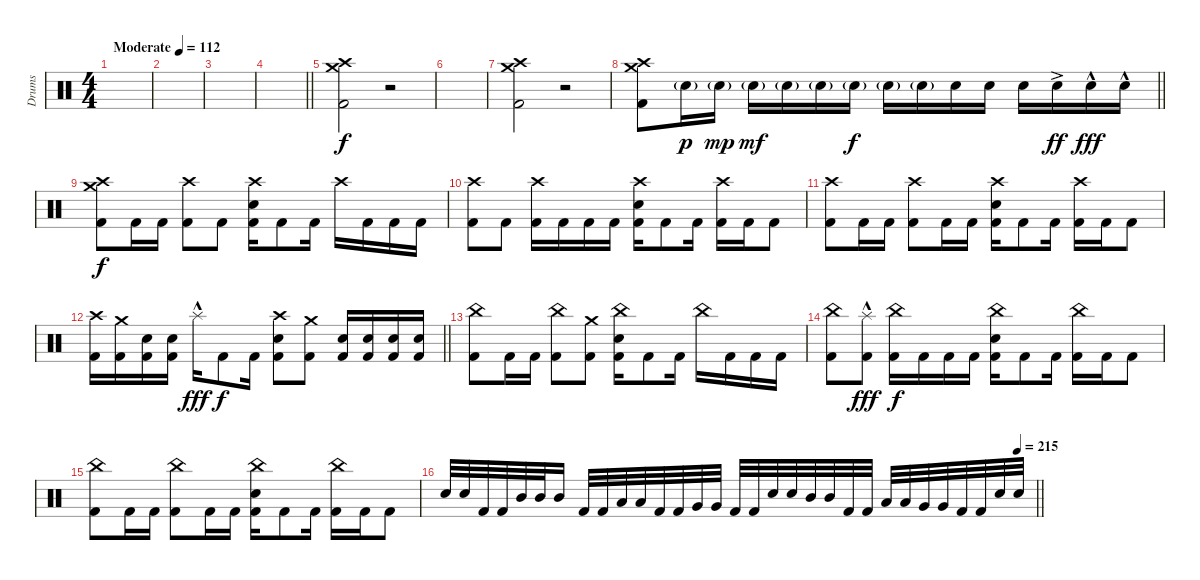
\track ("Drums" "Drums") {instrument percussion}
\staff {score}
\articulation defaults
\ts (4 4)
\tempo (112 "Moderate")
\clef neutral
\ks c
|
|
|
\barLineRight lightlight
|
("Crash high (hit)" "Crash medium (hit)" "Kick (hit) 2").2 r.2 |
|
("Crash high (hit)" "Crash medium (hit)" "Kick (hit) 2").2 r.2 |
\barLineRight lightlight
("Crash high (hit)" "Crash medium (hit)" "Kick (hit) 2").8 "Electric Snare (hit)"{g}.16{dy p} "Electric Snare (hit)"{g}.16{dy mp} "Electric Snare (hit)"{g}.16{dy mf} "Electric Snare (hit)"{g}.16 "Electric Snare (hit)"{g}.16 "Electric Snare (hit)"{g}.16{dy f} "Electric Snare (hit)"{g}.16 "Electric Snare (hit)"{g}.16 "Electric Snare (hit)".16 "Electric Snare (hit)".16 "Electric Snare (hit)".16 "Electric Snare (hit)"{ac}.16{dy ff} "Electric Snare (hit)"{hac}.16{dy fff} "Electric Snare (hit)"{hac}.16 |
("Crash high (hit)" "Crash medium (hit)" "Kick (hit) 2").8{dy f} "Kick (hit) 2".16 "Kick (hit) 2".16 ("Crash high (hit)" "Kick (hit) 2").8 "Kick (hit) 2".8 ("Crash high (hit)" "Electric Snare (hit)" "Kick (hit) 2").16 "Kick (hit) 2".8 "Kick (hit) 2".16 "Crash high (hit)".16 "Kick (hit) 2".16 "Kick (hit) 2".16 "Kick (hit) 2".16 |
("Crash high (hit)" "Kick (hit) 2").8 "Kick (hit) 2".8 ("Crash high (hit)" "Kick (hit) 2").16 "Kick (hit) 2".16 "Kick (hit) 2".16 "Kick (hit) 2".16 ("Crash high (hit)" "Electric Snare (hit)" "Kick (hit) 2").16 "Kick (hit) 2".8 "Kick (hit) 2".16 ("Crash high (hit)" "Kick (hit) 2").16 "Kick (hit) 2".16 "Kick (hit) 2".8 |
("Crash high (hit)" "Kick (hit) 2").8 "Kick (hit) 2".16 "Kick (hit) 2".16 ("Crash high (hit)" "Kick (hit) 2").8 "Kick (hit) 2".16 "Kick (hit) 2".16 ("Crash high (hit)" "Electric Snare (hit)" "Kick (hit) 2").16 "Kick (hit) 2".8 "Kick (hit) 2".16 ("Crash high (hit)" "Kick (hit) 2").16 "Kick (hit) 2".16 "Kick (hit) 2".8 |
\barLineRight lightlight
("Crash high (hit)" "Kick (hit) 2").16 ("Crash medium (hit)" "Kick (hit) 2").16 ("Electric Snare (hit)" "Kick (hit) 2").16 ("Electric Snare (hit)" "Kick (hit) 2").16 "Splash (hit)"{hac}.16{dy fff} "Kick (hit) 2".8{dy f} "Kick (hit) 2".16 ("Crash high (hit)" "Electric Snare (hit)" "Kick (hit) 2").8 ("Crash medium (hit)" "Kick (hit) 2").8 ("Electric Snare (hit)" "Kick (hit) 2").16 ("Electric Snare (hit)" "Kick (hit) 2").16 ("Electric Snare (hit)" "Kick (hit) 2").16 ("Electric Snare (hit)" "Kick (hit) 2").16 |
("China (hit)" "Kick (hit) 2").8 "Kick (hit) 2".16 "Kick (hit) 2".16 ("China (hit)" "Kick (hit) 2").8 ("Crash medium (hit)" "Kick (hit) 2").8 ("China (hit)" "Electric Snare (hit)" "Kick (hit) 2").16 "Kick (hit) 2".8 "Kick (hit) 2".16 "China (hit)".16 "Kick (hit) 2".16 "Kick (hit) 2".16 "Kick (hit) 2".16 |
("China (hit)" "Kick (hit) 2").8 ("Splash (hit)"{hac} "Kick (hit) 2").8{dy fff} ("China (hit)" "Kick (hit) 2").16{dy f} "Kick (hit) 2".16 "Kick (hit) 2".16 "Kick (hit) 2".16 ("China (hit)" "Electric Snare (hit)" "Kick (hit) 2").16 "Kick (hit) 2".8 "Kick (hit) 2".16 ("China (hit)" "Kick (hit) 2").16 "Kick (hit) 2".16 "Kick (hit) 2".8 |
("China (hit)" "Kick (hit) 2").8 "Kick (hit) 2".16 "Kick (hit) 2".16 ("China (hit)" "Kick (hit) 2").8 "Kick (hit) 2".16 "Kick (hit) 2".16 ("China (hit)" "Electric Snare (hit)" "Kick (hit) 2").16 "Kick (hit) 2".8 "Kick (hit) 2".16 ("China (hit)" "Kick (hit) 2").16 "Kick (hit) 2".16 "Kick (hit) 2".8 |
\tempo (215 0.96875)
\barLineRight lightlight "Electric Snare (hit)".32 "Electric Snare (hit)".32 "Kick (hit) 2".32 "Kick (hit) 2".32 "Mid Tom (hit)".32 "Mid Tom (hit)".32 "Mid Tom (hit)".16 "Kick (hit) 2".32 "Kick (hit) 2".32 "Low Tom (hit)".32 "Low Tom (hit)".32 "Kick (hit) 2".32 "Kick (hit) 2".32 "Very Low Tom (hit)".32 "Very Low Tom (hit)".32 "Kick (hit) 2".32 "Kick (hit) 2".32 "Electric Snare (hit)".32 "Electric Snare (hit)".32 "Mid Tom (hit)".32 "Mid Tom (hit)".32 "Kick (hit) 2".32 "Kick (hit) 2".32 "Low Tom (hit)".32 "Low Tom (hit)".32 "Very Low Tom (hit)".32 "Very Low Tom (hit)".32 "Kick (hit) 2".32 "Kick (hit) 2".32 "Electric Snare (hit)".32 "Electric Snare (hit)".32
